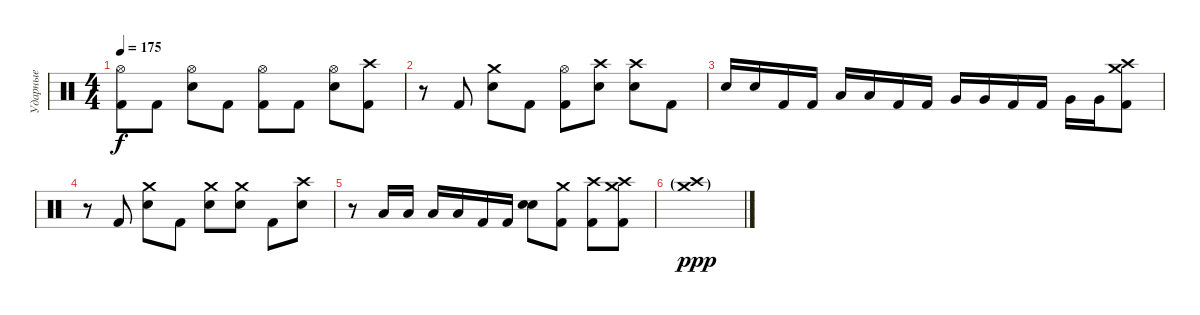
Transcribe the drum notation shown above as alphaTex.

\track ("Ударные" "Ударные") {instrument percussion}
\staff {score}
\articulation defaults
\ts (4 4)
\tempo 175
\clef neutral
\ks c
("Hi-Hat (open)" "Kick (hit) 2").8{dy f} "Kick (hit) 2".8 ("Hi-Hat (open)" "Electric Snare (hit)").8 "Kick (hit) 2".8 ("Hi-Hat (open)" "Kick (hit) 2").8 "Kick (hit) 2".8 ("Hi-Hat (open)" "Electric Snare (hit)").8 ("Crash high (hit)" "Kick (hit) 2").8 |
r.8 "Kick (hit) 2".8 ("Crash medium (hit)" "Electric Snare (hit)").8 "Kick (hit) 2".8 ("Hi-Hat (open)" "Kick (hit) 2").8 ("Crash high (hit)" "Electric Snare (hit)").8 ("Crash high (hit)" "Electric Snare (hit)").8 "Kick (hit) 2".8 |
"Electric Snare (hit)".16 "Electric Snare (hit)".16 "Kick (hit) 2".16 "Kick (hit) 2".16 "Low Tom (hit)".16 "Low Tom (hit)".16 "Kick (hit) 2".16 "Kick (hit) 2".16 "Very Low Tom (hit)".16 "Very Low Tom (hit)".16 "Kick (hit) 2".16 "Kick (hit) 2".16 "Very Low Tom (hit)".16 "Very Low Tom (hit)".16 ("Crash high (hit)" "Crash medium (hit)" "Kick (hit) 2").8 |
r.8 "Kick (hit) 2".8 ("Crash medium (hit)" "Electric Snare (hit)").8 "Kick (hit) 2".8 ("Crash medium (hit)" "Electric Snare (hit)").8 ("Crash medium (hit)" "Electric Snare (hit)").8 "Kick (hit) 2".8 ("Crash high (hit)" "Electric Snare (hit)").8 |
r.8 "Low Tom (hit)".16 "Low Tom (hit)".16 "Low Tom (hit)".16 "Low Tom (hit)".16 "Kick (hit) 2".16 "Kick (hit) 2".16 ("Electric Snare (hit)" "Electric Snare (hit)").8{bd 240} ("Crash medium (hit)" "Kick (hit) 2").8 ("Crash high (hit)" "Kick (hit) 2").8 ("Crash high (hit)" "Crash medium (hit)" "Kick (hit) 2").8 |
("Crash high (hit)"{g} "Crash medium (hit)"{g}).1{dy ppp}
